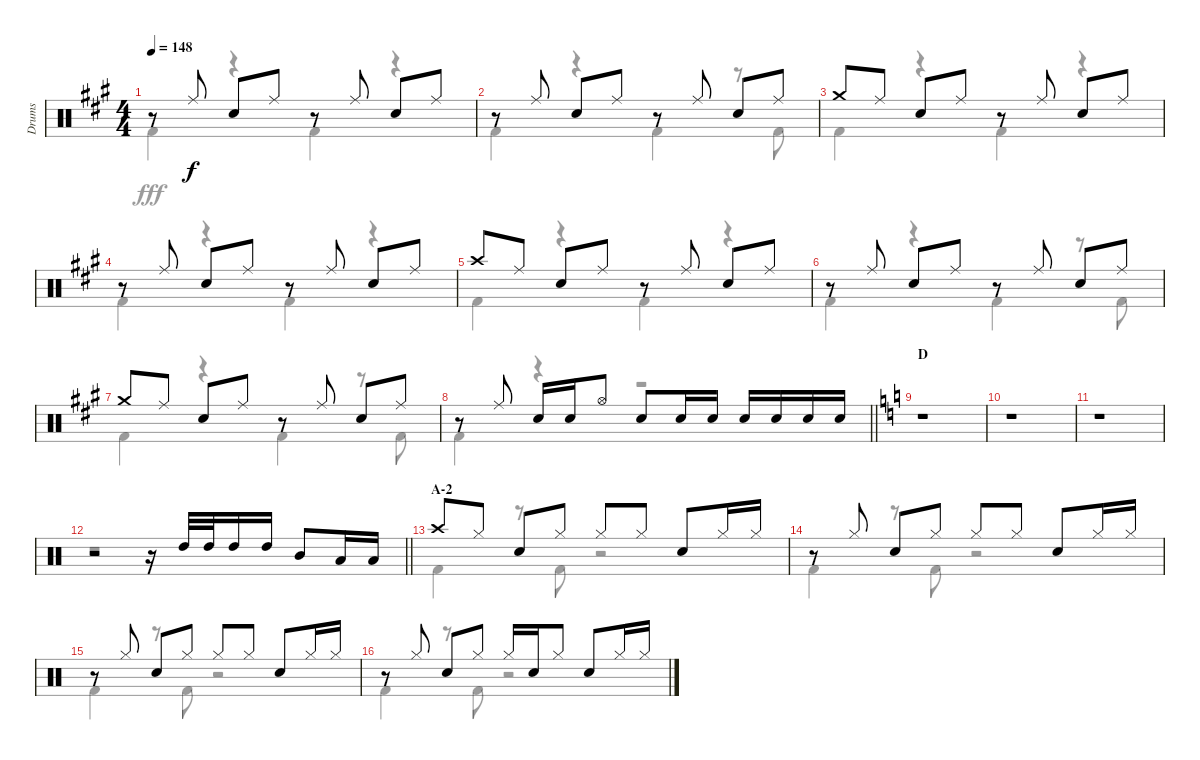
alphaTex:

\track ("Drums" "Drums") {instrument percussion}
\staff {score}
\articulation defaults
\voice
\ts (4 4)
\tempo 148
\clef neutral
\ks a
r.8{dy f} "Ride (middle)".8 "Snare (hit) 2".8 "Ride (middle)".8 r.8 "Ride (middle)".8 "Snare (hit) 2".8 "Ride (middle)".8 |
r.8 "Ride (middle)".8 "Snare (hit) 2".8 "Ride (middle)".8 r.8 "Ride (middle)".8 "Snare (hit) 2".8 "Ride (middle)".8 |
"Crash medium (hit)".8 "Ride (middle)".8 "Snare (hit) 2".8 "Ride (middle)".8 r.8 "Ride (middle)".8 "Snare (hit) 2".8 "Ride (middle)".8 |
r.8 "Ride (middle)".8 "Snare (hit) 2".8 "Ride (middle)".8 r.8 "Ride (middle)".8 "Snare (hit) 2".8 "Ride (middle)".8 |
"Crash high (hit)".8 "Ride (middle)".8 "Snare (hit) 2".8 "Ride (middle)".8 r.8 "Ride (middle)".8 "Snare (hit) 2".8 "Ride (middle)".8 |
r.8 "Ride (middle)".8 "Snare (hit) 2".8 "Ride (middle)".8 r.8 "Ride (middle)".8 "Snare (hit) 2".8 "Ride (middle)".8 |
"Crash medium (hit)".8 "Ride (middle)".8 "Snare (hit) 2".8 "Ride (middle)".8 r.8 "Ride (middle)".8 "Snare (hit) 2".8 "Ride (middle)".8 |
\barLineRight lightlight
r.8 "Ride (middle)".8 "Snare (hit) 2".16 "Snare (hit) 2".16 "Hi-Hat (open)".8 "Snare (hit) 2".8 "Snare (hit) 2".16 "Snare (hit) 2".16 "Snare (hit) 2".16 "Snare (hit) 2".16 "Snare (hit) 2".16 "Snare (hit) 2".16 |
\section ("" "D")
\ks c
r.1 |
r.1 |
r.1 |
\barLineRight lightlight
r.2 r.16 "High Tom (hit)".32 "High Tom (hit)".32 "High Tom (hit)".16 "High Tom (hit)".16 "Mid Tom (hit)".8 "Low Tom (hit)".16 "Low Tom (hit)".16 |
\section ("" "A-2")
"Crash high (hit)".8 "Hi-Hat (closed)".8 "Snare (hit) 2".8 "Hi-Hat (closed)".8 "Hi-Hat (closed)".8 "Hi-Hat (closed)".8 "Snare (hit) 2".8 "Hi-Hat (closed)".16 "Hi-Hat (closed)".16 |
r.8 "Hi-Hat (closed)".8 "Snare (hit) 2".8 "Hi-Hat (closed)".8 "Hi-Hat (closed)".8 "Hi-Hat (closed)".8 "Snare (hit) 2".8 "Hi-Hat (closed)".16 "Hi-Hat (closed)".16 |
r.8 "Hi-Hat (closed)".8 "Snare (hit) 2".8 "Hi-Hat (closed)".8 "Hi-Hat (closed)".8 "Hi-Hat (closed)".8 "Snare (hit) 2".8 "Hi-Hat (closed)".16 "Hi-Hat (closed)".16 |
r.8 "Hi-Hat (closed)".8 "Snare (hit) 2".8 "Hi-Hat (closed)".8 "Hi-Hat (closed)".16 "Snare (hit) 2".16 "Hi-Hat (closed)".8 "Snare (hit) 2".8 "Hi-Hat (closed)".16 "Hi-Hat (closed)".16
\voice
\clef neutral
\ottava regular
\simile none
\ks a "Kick (hit) 2".4{dy fff}
r.4 "Kick (hit) 2".4 r.4 |
"Kick (hit) 2".4 r.4 "Kick (hit) 2".4 r.8 "Kick (hit) 2".8 |
"Kick (hit) 2".4 r.4 "Kick (hit) 2".4 r.4 |
"Kick (hit) 2".4 r.4 "Kick (hit) 2".4 r.4 |
"Kick (hit) 2".4 r.4 "Kick (hit) 2".4 r.4 |
"Kick (hit) 2".4 r.4 "Kick (hit) 2".4 r.8 "Kick (hit) 2".8 |
"Kick (hit) 2".4 r.4 "Kick (hit) 2".4 r.8 "Kick (hit) 2".8 |
\barLineRight lightlight "Kick (hit) 2".4
r.4 r.2 |
\ks c
r.1 |
r.1 |
r.1 |
\barLineRight lightlight
r.1 |
"Kick (hit) 2".4 r.8 "Kick (hit) 2".8 r.2 |
"Kick (hit) 2".4 r.8 "Kick (hit) 2".8 r.2 |
"Kick (hit) 2".4 r.8 "Kick (hit) 2".8 r.2 |
"Kick (hit) 2".4 r.8 "Kick (hit) 2".8 r.2
